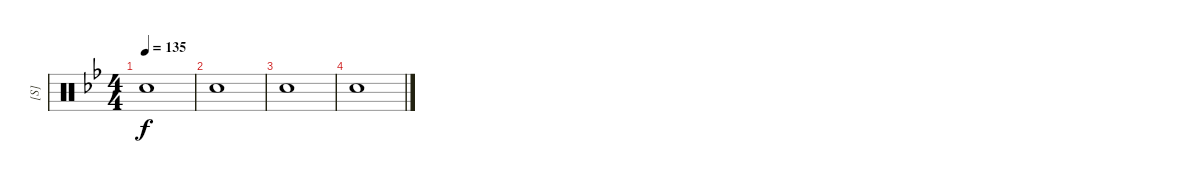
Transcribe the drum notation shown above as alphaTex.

\track ("[S]" "[S]") {instrument percussion}
\staff {score}
\articulation defaults
\ts (4 4)
\tempo 135
\clef neutral
\ks gminor "Snare (hit)".1{dy f}
|
"Snare (hit)".1 |
"Snare (hit)".1 |
"Snare (hit)".1
